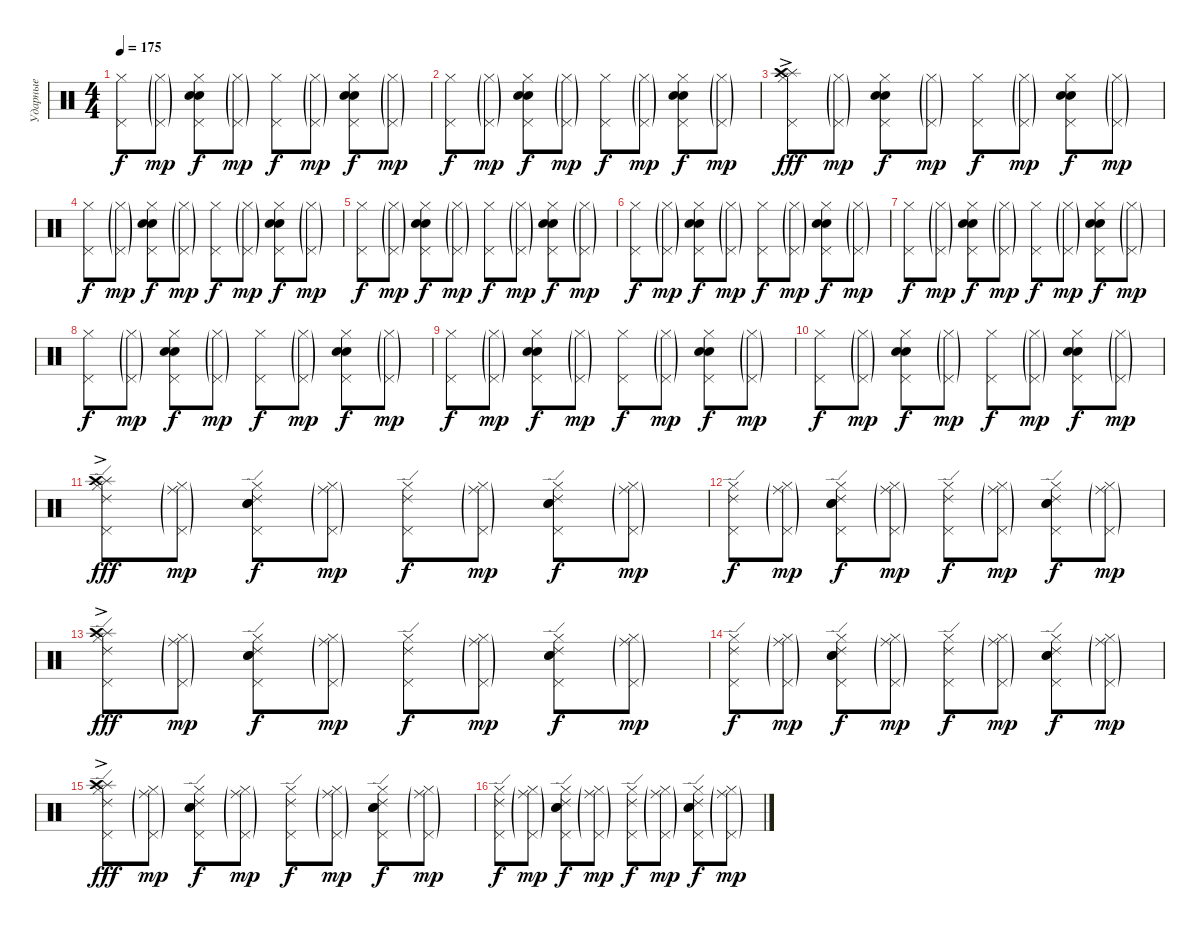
\track ("Ударные" "Ударные") {instrument percussion}
\staff {score}
\articulation defaults
\ts (4 4)
\tempo 175
\clef neutral
\ks c
("Hi-Hat (closed)" "Pedal Hi-Hat (hit)").8{dy f} ("Hi-Hat (closed)"{g} "Pedal Hi-Hat (hit)"{g}).8{dy mp} ("Hi-Hat (closed)" "Pedal Hi-Hat (hit)" "Snare (hit) 2" "Electric Snare (hit)").8{dy f} ("Hi-Hat (closed)"{g} "Pedal Hi-Hat (hit)"{g}).8{dy mp} ("Hi-Hat (closed)" "Pedal Hi-Hat (hit)").8{dy f} ("Hi-Hat (closed)"{g} "Pedal Hi-Hat (hit)"{g}).8{dy mp} ("Hi-Hat (closed)" "Pedal Hi-Hat (hit)" "Snare (hit) 2" "Electric Snare (hit)").8{dy f} ("Hi-Hat (closed)"{g} "Pedal Hi-Hat (hit)"{g}).8{dy mp} |
("Hi-Hat (closed)" "Pedal Hi-Hat (hit)").8{dy f} ("Hi-Hat (closed)"{g} "Pedal Hi-Hat (hit)"{g}).8{dy mp} ("Hi-Hat (closed)" "Pedal Hi-Hat (hit)" "Snare (hit) 2" "Electric Snare (hit)").8{dy f} ("Hi-Hat (closed)"{g} "Pedal Hi-Hat (hit)"{g}).8{dy mp} ("Hi-Hat (closed)" "Pedal Hi-Hat (hit)").8{dy f} ("Hi-Hat (closed)"{g} "Pedal Hi-Hat (hit)"{g}).8{dy mp} ("Hi-Hat (closed)" "Pedal Hi-Hat (hit)" "Snare (hit) 2" "Electric Snare (hit)").8{dy f} ("Hi-Hat (closed)"{g} "Pedal Hi-Hat (hit)"{g}).8{dy mp} |
("Hi-Hat (closed)" "Pedal Hi-Hat (hit)" "Splash (hit)"{ac} "Crash high (hit)"{ac}).8{dy fff} ("Hi-Hat (closed)"{g} "Pedal Hi-Hat (hit)"{g}).8{dy mp} ("Hi-Hat (closed)" "Pedal Hi-Hat (hit)" "Snare (hit) 2" "Electric Snare (hit)").8{dy f} ("Hi-Hat (closed)"{g} "Pedal Hi-Hat (hit)"{g}).8{dy mp} ("Hi-Hat (closed)" "Pedal Hi-Hat (hit)").8{dy f} ("Hi-Hat (closed)"{g} "Pedal Hi-Hat (hit)"{g}).8{dy mp} ("Hi-Hat (closed)" "Pedal Hi-Hat (hit)" "Snare (hit) 2" "Electric Snare (hit)").8{dy f} ("Hi-Hat (closed)"{g} "Pedal Hi-Hat (hit)"{g}).8{dy mp} |
("Hi-Hat (closed)" "Pedal Hi-Hat (hit)").8{dy f} ("Hi-Hat (closed)"{g} "Pedal Hi-Hat (hit)"{g}).8{dy mp} ("Hi-Hat (closed)" "Pedal Hi-Hat (hit)" "Snare (hit) 2" "Electric Snare (hit)").8{dy f} ("Hi-Hat (closed)"{g} "Pedal Hi-Hat (hit)"{g}).8{dy mp} ("Hi-Hat (closed)" "Pedal Hi-Hat (hit)").8{dy f} ("Hi-Hat (closed)"{g} "Pedal Hi-Hat (hit)"{g}).8{dy mp} ("Hi-Hat (closed)" "Pedal Hi-Hat (hit)" "Snare (hit) 2" "Electric Snare (hit)").8{dy f} ("Hi-Hat (closed)"{g} "Pedal Hi-Hat (hit)"{g}).8{dy mp} |
("Hi-Hat (closed)" "Pedal Hi-Hat (hit)").8{dy f} ("Hi-Hat (closed)"{g} "Pedal Hi-Hat (hit)"{g}).8{dy mp} ("Hi-Hat (closed)" "Pedal Hi-Hat (hit)" "Snare (hit) 2" "Electric Snare (hit)").8{dy f} ("Hi-Hat (closed)"{g} "Pedal Hi-Hat (hit)"{g}).8{dy mp} ("Hi-Hat (closed)" "Pedal Hi-Hat (hit)").8{dy f} ("Hi-Hat (closed)"{g} "Pedal Hi-Hat (hit)"{g}).8{dy mp} ("Hi-Hat (closed)" "Pedal Hi-Hat (hit)" "Snare (hit) 2" "Electric Snare (hit)").8{dy f} ("Hi-Hat (closed)"{g} "Pedal Hi-Hat (hit)"{g}).8{dy mp} |
("Hi-Hat (closed)" "Pedal Hi-Hat (hit)").8{dy f} ("Hi-Hat (closed)"{g} "Pedal Hi-Hat (hit)"{g}).8{dy mp} ("Hi-Hat (closed)" "Pedal Hi-Hat (hit)" "Snare (hit) 2" "Electric Snare (hit)").8{dy f} ("Hi-Hat (closed)"{g} "Pedal Hi-Hat (hit)"{g}).8{dy mp} ("Hi-Hat (closed)" "Pedal Hi-Hat (hit)").8{dy f} ("Hi-Hat (closed)"{g} "Pedal Hi-Hat (hit)"{g}).8{dy mp} ("Hi-Hat (closed)" "Pedal Hi-Hat (hit)" "Snare (hit) 2" "Electric Snare (hit)").8{dy f} ("Hi-Hat (closed)"{g} "Pedal Hi-Hat (hit)"{g}).8{dy mp} |
("Hi-Hat (closed)" "Pedal Hi-Hat (hit)").8{dy f} ("Hi-Hat (closed)"{g} "Pedal Hi-Hat (hit)"{g}).8{dy mp} ("Hi-Hat (closed)" "Pedal Hi-Hat (hit)" "Snare (hit) 2" "Electric Snare (hit)").8{dy f} ("Hi-Hat (closed)"{g} "Pedal Hi-Hat (hit)"{g}).8{dy mp} ("Hi-Hat (closed)" "Pedal Hi-Hat (hit)").8{dy f} ("Hi-Hat (closed)"{g} "Pedal Hi-Hat (hit)"{g}).8{dy mp} ("Hi-Hat (closed)" "Pedal Hi-Hat (hit)" "Snare (hit) 2" "Electric Snare (hit)").8{dy f} ("Hi-Hat (closed)"{g} "Pedal Hi-Hat (hit)"{g}).8{dy mp} |
("Hi-Hat (closed)" "Pedal Hi-Hat (hit)").8{dy f} ("Hi-Hat (closed)"{g} "Pedal Hi-Hat (hit)"{g}).8{dy mp} ("Hi-Hat (closed)" "Pedal Hi-Hat (hit)" "Snare (hit) 2" "Electric Snare (hit)").8{dy f} ("Hi-Hat (closed)"{g} "Pedal Hi-Hat (hit)"{g}).8{dy mp} ("Hi-Hat (closed)" "Pedal Hi-Hat (hit)").8{dy f} ("Hi-Hat (closed)"{g} "Pedal Hi-Hat (hit)"{g}).8{dy mp} ("Hi-Hat (closed)" "Pedal Hi-Hat (hit)" "Snare (hit) 2" "Electric Snare (hit)").8{dy f} ("Hi-Hat (closed)"{g} "Pedal Hi-Hat (hit)"{g}).8{dy mp} |
("Hi-Hat (closed)" "Pedal Hi-Hat (hit)").8{dy f} ("Hi-Hat (closed)"{g} "Pedal Hi-Hat (hit)"{g}).8{dy mp} ("Hi-Hat (closed)" "Pedal Hi-Hat (hit)" "Snare (hit) 2" "Electric Snare (hit)").8{dy f} ("Hi-Hat (closed)"{g} "Pedal Hi-Hat (hit)"{g}).8{dy mp} ("Hi-Hat (closed)" "Pedal Hi-Hat (hit)").8{dy f} ("Hi-Hat (closed)"{g} "Pedal Hi-Hat (hit)"{g}).8{dy mp} ("Hi-Hat (closed)" "Pedal Hi-Hat (hit)" "Snare (hit) 2" "Electric Snare (hit)").8{dy f} ("Hi-Hat (closed)"{g} "Pedal Hi-Hat (hit)"{g}).8{dy mp} |
("Hi-Hat (closed)" "Pedal Hi-Hat (hit)").8{dy f} ("Hi-Hat (closed)"{g} "Pedal Hi-Hat (hit)"{g}).8{dy mp} ("Hi-Hat (closed)" "Pedal Hi-Hat (hit)" "Snare (hit) 2" "Electric Snare (hit)").8{dy f} ("Hi-Hat (closed)"{g} "Pedal Hi-Hat (hit)"{g}).8{dy mp} ("Hi-Hat (closed)" "Pedal Hi-Hat (hit)").8{dy f} ("Hi-Hat (closed)"{g} "Pedal Hi-Hat (hit)"{g}).8{dy mp} ("Hi-Hat (closed)" "Pedal Hi-Hat (hit)" "Snare (hit) 2" "Electric Snare (hit)").8{dy f} ("Hi-Hat (closed)"{g} "Pedal Hi-Hat (hit)"{g}).8{dy mp} |
("Ride (edge) 2" "Hi-Hat (closed)" "Pedal Hi-Hat (hit)" "Splash (hit)"{ac} "Crash high (hit)"{ac}).8{dy fff} ("Ride (middle)"{g} "Hi-Hat (closed)"{g} "Pedal Hi-Hat (hit)"{g}).8{dy mp} ("Ride (edge) 2" "Hi-Hat (closed)" "Pedal Hi-Hat (hit)" "Snare (hit) 2" "Electric Snare (hit)").8{dy f} ("Ride (middle)"{g} "Hi-Hat (closed)"{g} "Pedal Hi-Hat (hit)"{g}).8{dy mp} ("Ride (edge) 2" "Hi-Hat (closed)" "Pedal Hi-Hat (hit)").8{dy f} ("Ride (middle)"{g} "Hi-Hat (closed)"{g} "Pedal Hi-Hat (hit)"{g}).8{dy mp} ("Ride (edge) 2" "Hi-Hat (closed)" "Pedal Hi-Hat (hit)" "Snare (hit) 2" "Electric Snare (hit)").8{dy f} ("Ride (middle)"{g} "Hi-Hat (closed)"{g} "Pedal Hi-Hat (hit)"{g}).8{dy mp} |
("Ride (edge) 2" "Hi-Hat (closed)" "Pedal Hi-Hat (hit)").8{dy f} ("Ride (middle)"{g} "Hi-Hat (closed)"{g} "Pedal Hi-Hat (hit)"{g}).8{dy mp} ("Ride (edge) 2" "Hi-Hat (closed)" "Pedal Hi-Hat (hit)" "Snare (hit) 2" "Electric Snare (hit)").8{dy f} ("Ride (middle)"{g} "Hi-Hat (closed)"{g} "Pedal Hi-Hat (hit)"{g}).8{dy mp} ("Ride (edge) 2" "Hi-Hat (closed)" "Pedal Hi-Hat (hit)").8{dy f} ("Ride (middle)"{g} "Hi-Hat (closed)"{g} "Pedal Hi-Hat (hit)"{g}).8{dy mp} ("Ride (edge) 2" "Hi-Hat (closed)" "Pedal Hi-Hat (hit)" "Snare (hit) 2" "Electric Snare (hit)").8{dy f} ("Ride (middle)"{g} "Hi-Hat (closed)"{g} "Pedal Hi-Hat (hit)"{g}).8{dy mp} |
("Ride (edge) 2" "Hi-Hat (closed)" "Pedal Hi-Hat (hit)" "Splash (hit)"{ac} "Crash high (hit)"{ac}).8{dy fff} ("Ride (middle)"{g} "Hi-Hat (closed)"{g} "Pedal Hi-Hat (hit)"{g}).8{dy mp} ("Ride (edge) 2" "Hi-Hat (closed)" "Pedal Hi-Hat (hit)" "Snare (hit) 2" "Electric Snare (hit)").8{dy f} ("Ride (middle)"{g} "Hi-Hat (closed)"{g} "Pedal Hi-Hat (hit)"{g}).8{dy mp} ("Ride (edge) 2" "Hi-Hat (closed)" "Pedal Hi-Hat (hit)").8{dy f} ("Ride (middle)"{g} "Hi-Hat (closed)"{g} "Pedal Hi-Hat (hit)"{g}).8{dy mp} ("Ride (edge) 2" "Hi-Hat (closed)" "Pedal Hi-Hat (hit)" "Snare (hit) 2" "Electric Snare (hit)").8{dy f} ("Ride (middle)"{g} "Hi-Hat (closed)"{g} "Pedal Hi-Hat (hit)"{g}).8{dy mp} |
("Ride (edge) 2" "Hi-Hat (closed)" "Pedal Hi-Hat (hit)").8{dy f} ("Ride (middle)"{g} "Hi-Hat (closed)"{g} "Pedal Hi-Hat (hit)"{g}).8{dy mp} ("Ride (edge) 2" "Hi-Hat (closed)" "Pedal Hi-Hat (hit)" "Snare (hit) 2" "Electric Snare (hit)").8{dy f} ("Ride (middle)"{g} "Hi-Hat (closed)"{g} "Pedal Hi-Hat (hit)"{g}).8{dy mp} ("Ride (edge) 2" "Hi-Hat (closed)" "Pedal Hi-Hat (hit)").8{dy f} ("Ride (middle)"{g} "Hi-Hat (closed)"{g} "Pedal Hi-Hat (hit)"{g}).8{dy mp} ("Ride (edge) 2" "Hi-Hat (closed)" "Pedal Hi-Hat (hit)" "Snare (hit) 2" "Electric Snare (hit)").8{dy f} ("Ride (middle)"{g} "Hi-Hat (closed)"{g} "Pedal Hi-Hat (hit)"{g}).8{dy mp} |
("Ride (edge) 2" "Hi-Hat (closed)" "Pedal Hi-Hat (hit)" "Splash (hit)"{ac} "Crash high (hit)"{ac}).8{dy fff} ("Ride (middle)"{g} "Hi-Hat (closed)"{g} "Pedal Hi-Hat (hit)"{g}).8{dy mp} ("Ride (edge) 2" "Hi-Hat (closed)" "Pedal Hi-Hat (hit)" "Snare (hit) 2" "Electric Snare (hit)").8{dy f} ("Ride (middle)"{g} "Hi-Hat (closed)"{g} "Pedal Hi-Hat (hit)"{g}).8{dy mp} ("Ride (edge) 2" "Hi-Hat (closed)" "Pedal Hi-Hat (hit)").8{dy f} ("Ride (middle)"{g} "Hi-Hat (closed)"{g} "Pedal Hi-Hat (hit)"{g}).8{dy mp} ("Ride (edge) 2" "Hi-Hat (closed)" "Pedal Hi-Hat (hit)" "Snare (hit) 2" "Electric Snare (hit)").8{dy f} ("Ride (middle)"{g} "Hi-Hat (closed)"{g} "Pedal Hi-Hat (hit)"{g}).8{dy mp} |
("Ride (edge) 2" "Hi-Hat (closed)" "Pedal Hi-Hat (hit)").8{dy f} ("Ride (middle)"{g} "Hi-Hat (closed)"{g} "Pedal Hi-Hat (hit)"{g}).8{dy mp} ("Ride (edge) 2" "Hi-Hat (closed)" "Pedal Hi-Hat (hit)" "Snare (hit) 2" "Electric Snare (hit)").8{dy f} ("Ride (middle)"{g} "Hi-Hat (closed)"{g} "Pedal Hi-Hat (hit)"{g}).8{dy mp} ("Ride (edge) 2" "Hi-Hat (closed)" "Pedal Hi-Hat (hit)").8{dy f} ("Ride (middle)"{g} "Hi-Hat (closed)"{g} "Pedal Hi-Hat (hit)"{g}).8{dy mp} ("Ride (edge) 2" "Hi-Hat (closed)" "Pedal Hi-Hat (hit)" "Snare (hit) 2" "Electric Snare (hit)").8{dy f} ("Ride (middle)"{g} "Hi-Hat (closed)"{g} "Pedal Hi-Hat (hit)"{g}).8{dy mp}
